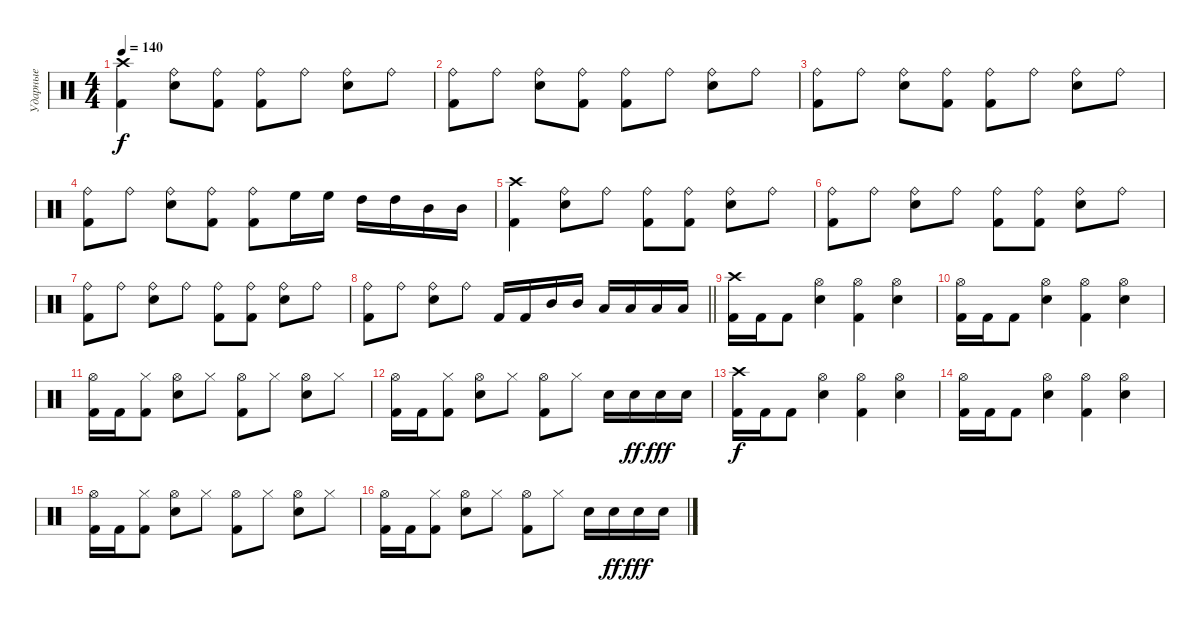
\track ("Ударные" "Ударные") {solo instrument percussion}
\staff {score}
\articulation defaults
\ts (4 4)
\tempo 140
\clef neutral
\ks c
("Crash high (hit)" "Kick (hit) 2").4{dy f} ("Ride (bell)" "Electric Snare (hit)").8 ("Ride (bell)" "Kick (hit) 2").8 ("Ride (bell)" "Kick (hit) 2").8 "Ride (bell)".8 ("Ride (bell)" "Electric Snare (hit)").8 "Ride (bell)".8 |
("Ride (bell)" "Kick (hit) 2").8 "Ride (bell)".8 ("Ride (bell)" "Electric Snare (hit)").8 ("Ride (bell)" "Kick (hit) 2").8 ("Ride (bell)" "Kick (hit) 2").8 "Ride (bell)".8 ("Ride (bell)" "Electric Snare (hit)").8 "Ride (bell)".8 |
("Ride (bell)" "Kick (hit) 2").8 "Ride (bell)".8 ("Ride (bell)" "Electric Snare (hit)").8 ("Ride (bell)" "Kick (hit) 2").8 ("Ride (bell)" "Kick (hit) 2").8 "Ride (bell)".8 ("Ride (bell)" "Electric Snare (hit)").8 "Ride (bell)".8 |
("Ride (bell)" "Kick (hit) 2").8 "Ride (bell)".8 ("Ride (bell)" "Electric Snare (hit)").8 ("Ride (bell)" "Kick (hit) 2").8 ("Ride (bell)" "Kick (hit) 2").8 "High Floor Tom (hit)".16 "High Floor Tom (hit)".16 "High Tom (hit)".16 "High Tom (hit)".16 "Mid Tom (hit)".16 "Mid Tom (hit)".16 |
("Crash high (hit)" "Kick (hit) 2").4 ("Ride (bell)" "Electric Snare (hit)").8 "Ride (bell)".8 ("Ride (bell)" "Kick (hit) 2").8 ("Ride (bell)" "Kick (hit) 2").8 ("Ride (bell)" "Electric Snare (hit)").8 "Ride (bell)".8 |
("Ride (bell)" "Kick (hit) 2").8 "Ride (bell)".8 ("Ride (bell)" "Electric Snare (hit)").8 "Ride (bell)".8 ("Ride (bell)" "Kick (hit) 2").8 ("Ride (bell)" "Kick (hit) 2").8 ("Ride (bell)" "Electric Snare (hit)").8 "Ride (bell)".8 |
("Ride (bell)" "Kick (hit) 2").8 "Ride (bell)".8 ("Ride (bell)" "Electric Snare (hit)").8 "Ride (bell)".8 ("Ride (bell)" "Kick (hit) 2").8 ("Ride (bell)" "Kick (hit) 2").8 ("Ride (bell)" "Electric Snare (hit)").8 "Ride (bell)".8 |
\barLineRight lightlight
("Ride (bell)" "Kick (hit) 2").8 "Ride (bell)".8 ("Ride (bell)" "Electric Snare (hit)").8 "Ride (bell)".8 "Kick (hit) 2".16 "Kick (hit) 2".16 "Mid Tom (hit)".16 "Mid Tom (hit)".16 "Low Tom (hit)".16 "Low Tom (hit)".16 "Low Floor Tom (hit)".16 "Low Floor Tom (hit)".16 |
("Crash high (hit)" "Kick (hit) 2").16 "Kick (hit) 2".16 "Kick (hit) 2".8 ("Hi-Hat (open)" "Electric Snare (hit)").4 ("Hi-Hat (open)" "Kick (hit) 2").4 ("Hi-Hat (open)" "Electric Snare (hit)").4 |
("Hi-Hat (open)" "Kick (hit) 2").16 "Kick (hit) 2".16 "Kick (hit) 2".8 ("Hi-Hat (open)" "Electric Snare (hit)").4 ("Hi-Hat (open)" "Kick (hit) 2").4 ("Hi-Hat (open)" "Electric Snare (hit)").4 |
("Hi-Hat (open)" "Kick (hit) 2").16 "Kick (hit) 2".16 ("Hi-Hat (closed)" "Kick (hit) 2").8 ("Hi-Hat (open)" "Electric Snare (hit)").8 "Hi-Hat (closed)".8 ("Hi-Hat (open)" "Kick (hit) 2").8 "Hi-Hat (closed)".8 ("Hi-Hat (open)" "Electric Snare (hit)").8 "Hi-Hat (closed)".8 |
("Hi-Hat (open)" "Kick (hit) 2").16 "Kick (hit) 2".16 ("Hi-Hat (closed)" "Kick (hit) 2").8 ("Hi-Hat (open)" "Electric Snare (hit)").8 "Hi-Hat (closed)".8 ("Hi-Hat (open)" "Kick (hit) 2").8 "Hi-Hat (closed)".8 "Electric Snare (hit)".16 "Electric Snare (hit)".16{dy ff} "Electric Snare (hit)".16{dy fff} "Electric Snare (hit)".16 |
("Crash high (hit)" "Kick (hit) 2").16{dy f} "Kick (hit) 2".16 "Kick (hit) 2".8 ("Hi-Hat (open)" "Electric Snare (hit)").4 ("Hi-Hat (open)" "Kick (hit) 2").4 ("Hi-Hat (open)" "Electric Snare (hit)").4 |
("Hi-Hat (open)" "Kick (hit) 2").16 "Kick (hit) 2".16 "Kick (hit) 2".8 ("Hi-Hat (open)" "Electric Snare (hit)").4 ("Hi-Hat (open)" "Kick (hit) 2").4 ("Hi-Hat (open)" "Electric Snare (hit)").4 |
("Hi-Hat (open)" "Kick (hit) 2").16 "Kick (hit) 2".16 ("Hi-Hat (closed)" "Kick (hit) 2").8 ("Hi-Hat (open)" "Electric Snare (hit)").8 "Hi-Hat (closed)".8 ("Hi-Hat (open)" "Kick (hit) 2").8 "Hi-Hat (closed)".8 ("Hi-Hat (open)" "Electric Snare (hit)").8 "Hi-Hat (closed)".8 |
("Hi-Hat (open)" "Kick (hit) 2").16 "Kick (hit) 2".16 ("Hi-Hat (closed)" "Kick (hit) 2").8 ("Hi-Hat (open)" "Electric Snare (hit)").8 "Hi-Hat (closed)".8 ("Hi-Hat (open)" "Kick (hit) 2").8 "Hi-Hat (closed)".8 "Electric Snare (hit)".16 "Electric Snare (hit)".16{dy ff} "Electric Snare (hit)".16{dy fff} "Electric Snare (hit)".16
